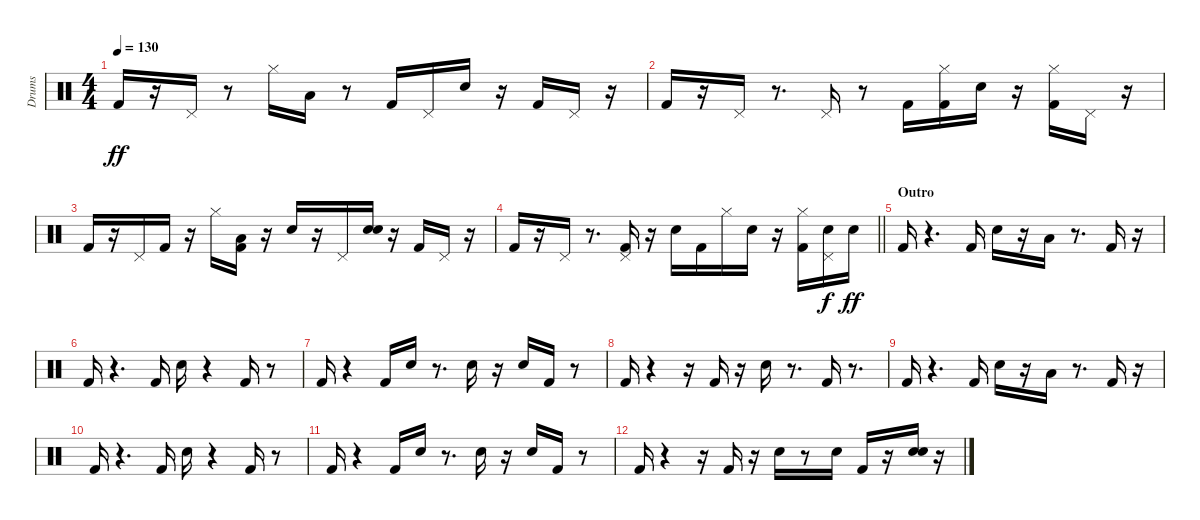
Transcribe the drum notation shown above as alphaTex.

\track ("Drums" "Drums") {instrument percussion}
\staff {score}
\articulation defaults
\ts (4 4)
\tempo 130
\clef neutral
\ks c "Kick (hit) 2".16{dy ff}
r.16 "Pedal Hi-Hat (hit)".16 r.8 "Hi-Hat (closed)".16 "Low Floor Tom (hit)".16 r.8 "Kick (hit) 2".16 "Pedal Hi-Hat (hit)".16 "Electric Snare (hit)".16 r.16 "Kick (hit) 2".16 "Pedal Hi-Hat (hit)".16 r.16 |
"Kick (hit) 2".16 r.16 "Pedal Hi-Hat (hit)".16 r.8{d} "Pedal Hi-Hat (hit)".16 r.8 "Kick (hit) 2".16 ("Kick (hit) 2" "Hi-Hat (closed)").16 "Electric Snare (hit)".16 r.16 ("Kick (hit) 2" "Hi-Hat (closed)").16 "Pedal Hi-Hat (hit)".16 r.16 |
"Kick (hit) 2".16 r.16 "Pedal Hi-Hat (hit)".16 "Kick (hit) 2".16 r.16 "Hi-Hat (closed)".16 ("Kick (hit) 2" "Low Floor Tom (hit)").16 r.16 "Electric Snare (hit)".16 r.16 "Pedal Hi-Hat (hit)".16 ("Snare (hit) 2" "Hand Clap (hit)").16 r.16 "Kick (hit) 2".16 "Pedal Hi-Hat (hit)".16 r.16 |
\barLineRight lightlight "Kick (hit) 2".16
r.16 "Pedal Hi-Hat (hit)".16 r.8{d} ("Kick (hit) 2" "Pedal Hi-Hat (hit)").16 r.16 "Electric Snare (hit)".16 "Kick (hit) 2".16 "Hi-Hat (closed)".16 "Electric Snare (hit)".16 r.16 ("Kick (hit) 2" "Hi-Hat (closed)").16 ("Electric Snare (hit)" "Pedal Hi-Hat (hit)").16{dy f} "Electric Snare (hit)".16{dy ff} |
\section ("" "Outro")
"Kick (hit) 2".16 r.4{d} "Kick (hit) 2".16 "Electric Snare (hit)".16 r.16 "Low Floor Tom (hit)".16 r.8{d} "Kick (hit) 2".16 r.16 |
"Kick (hit) 2".16 r.4{d} "Kick (hit) 2".16 "Electric Snare (hit)".16 r.4 "Kick (hit) 2".16 r.8 |
"Kick (hit) 2".16 r.4 "Kick (hit) 2".16 "Electric Snare (hit)".16 r.8{d} "Electric Snare (hit)".16 r.16 "Hand Clap (hit)".16 "Kick (hit) 2".16 r.8 |
"Kick (hit) 2".16 r.4 r.16 "Kick (hit) 2".16 r.16 "Electric Snare (hit)".16 r.8{d} "Kick (hit) 2".16 r.8{d} |
"Kick (hit) 2".16 r.4{d} "Kick (hit) 2".16 "Electric Snare (hit)".16 r.16 "Low Floor Tom (hit)".16 r.8{d} "Kick (hit) 2".16 r.16 |
"Kick (hit) 2".16 r.4{d} "Kick (hit) 2".16 "Electric Snare (hit)".16 r.4 "Kick (hit) 2".16 r.8 |
"Kick (hit) 2".16 r.4 "Kick (hit) 2".16 "Electric Snare (hit)".16 r.8{d} "Electric Snare (hit)".16 r.16 "Hand Clap (hit)".16 "Kick (hit) 2".16 r.8 |
"Kick (hit) 2".16 r.4 r.16 "Kick (hit) 2".16 r.16 "Electric Snare (hit)".16 r.8 "Electric Snare (hit)".16 "Kick (hit) 2".16 r.16 ("Snare (hit) 2" "Hand Clap (hit)").16 r.16
